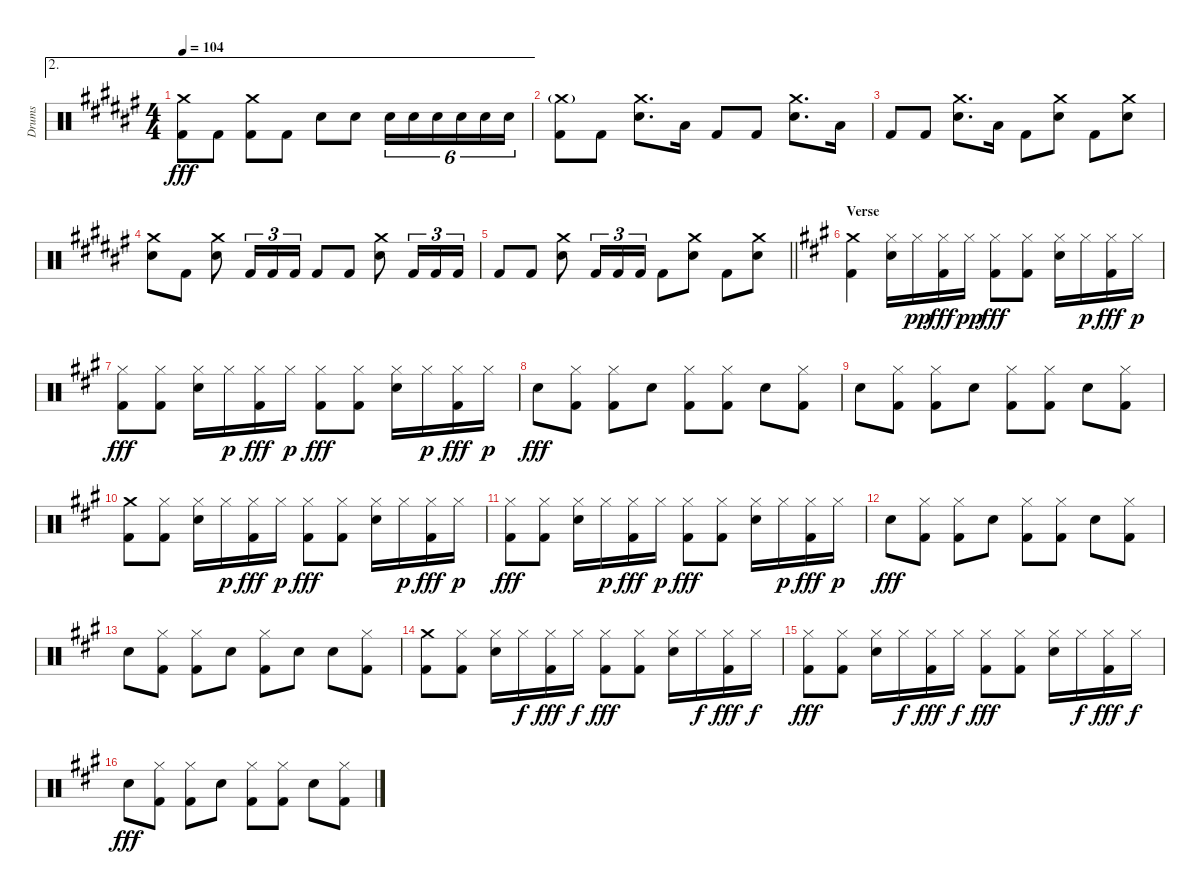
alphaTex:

\track ("Drums" "Drums") {instrument percussion}
\staff {score}
\articulation defaults
\ae 2
\ts (4 4)
\tempo 104
\clef neutral
\ks f#
("Crash medium (hit)" "Kick (hit) 2").8{dy fff} "Kick (hit) 2".8 ("Crash medium (hit)" "Kick (hit) 2").8 "Kick (hit) 2".8 "Snare (hit) 2".8 "Snare (hit) 2".8 "Snare (hit) 2".16{tu (6 4)} "Snare (hit) 2".16{tu (6 4)} "Snare (hit) 2".16{tu (6 4)} "Snare (hit) 2".16{tu (6 4)} "Snare (hit) 2".16{tu (6 4)} "Snare (hit) 2".16{tu (6 4)} |
("Crash medium (hit)"{g} "Kick (hit) 2").8 "Kick (hit) 2".8 ("Crash medium (hit)" "Snare (hit) 2").8{d} "Low Floor Tom (hit)".16 "Kick (hit) 2".8 "Kick (hit) 2".8 ("Crash medium (hit)" "Snare (hit) 2").8{d} "Low Floor Tom (hit)".16 |
"Kick (hit) 2".8 "Kick (hit) 2".8 ("Crash medium (hit)" "Snare (hit) 2").8{d} "Low Floor Tom (hit)".16 "Kick (hit) 2".8 ("Crash medium (hit)" "Snare (hit) 2").8 "Kick (hit) 2".8 ("Crash medium (hit)" "Snare (hit) 2").8 |
("Crash medium (hit)" "Snare (hit) 2").8 "Kick (hit) 2".8 ("Crash medium (hit)" "Snare (hit) 2").8 "Kick (hit) 2".16{tu (3 2)} "Kick (hit) 2".16{tu (3 2)} "Kick (hit) 2".16{tu (3 2)} "Kick (hit) 2".8 "Kick (hit) 2".8 ("Crash medium (hit)" "Snare (hit) 2").8 "Kick (hit) 2".16{tu (3 2)} "Kick (hit) 2".16{tu (3 2)} "Kick (hit) 2".16{tu (3 2)} |
\barLineRight lightlight "Kick (hit) 2".8 "Kick (hit) 2".8
("Crash medium (hit)" "Snare (hit) 2").8 "Kick (hit) 2".16{tu (3 2)} "Kick (hit) 2".16{tu (3 2)} "Kick (hit) 2".16{tu (3 2)} "Kick (hit) 2".8 ("Crash medium (hit)" "Snare (hit) 2").8 "Kick (hit) 2".8 ("Crash medium (hit)" "Snare (hit) 2").8 |
\section ("" "Verse")
\ks f#minor
("Crash medium (hit)" "Kick (hit) 2").4 ("Hi-Hat (closed)" "Snare (hit) 2").16 "Hi-Hat (closed)".16{dy pp} ("Hi-Hat (closed)" "Kick (hit) 2").16{dy fff} "Hi-Hat (closed)".16{dy pp} ("Hi-Hat (closed)" "Kick (hit) 2").8{dy fff} ("Hi-Hat (closed)" "Kick (hit) 2").8 ("Hi-Hat (closed)" "Snare (hit) 2").16 "Hi-Hat (closed)".16{dy p} ("Hi-Hat (closed)" "Kick (hit) 2").16{dy fff} "Hi-Hat (closed)".16{dy p} |
("Hi-Hat (closed)" "Kick (hit) 2").8{dy fff} ("Hi-Hat (closed)" "Kick (hit) 2").8 ("Hi-Hat (closed)" "Snare (hit) 2").16 "Hi-Hat (closed)".16{dy p} ("Hi-Hat (closed)" "Kick (hit) 2").16{dy fff} "Hi-Hat (closed)".16{dy p} ("Hi-Hat (closed)" "Kick (hit) 2").8{dy fff} ("Hi-Hat (closed)" "Kick (hit) 2").8 ("Hi-Hat (closed)" "Snare (hit) 2").16 "Hi-Hat (closed)".16{dy p} ("Hi-Hat (closed)" "Kick (hit) 2").16{dy fff} "Hi-Hat (closed)".16{dy p} |
"Snare (hit) 2".8{dy fff} ("Hi-Hat (closed)" "Kick (hit) 2").8 ("Hi-Hat (closed)" "Kick (hit) 2").8 "Snare (hit) 2".8 ("Hi-Hat (closed)" "Kick (hit) 2").8 ("Hi-Hat (closed)" "Kick (hit) 2").8 "Snare (hit) 2".8 ("Hi-Hat (closed)" "Kick (hit) 2").8 |
"Snare (hit) 2".8 ("Hi-Hat (closed)" "Kick (hit) 2").8 ("Hi-Hat (closed)" "Kick (hit) 2").8 "Snare (hit) 2".8 ("Hi-Hat (closed)" "Kick (hit) 2").8 ("Hi-Hat (closed)" "Kick (hit) 2").8 "Snare (hit) 2".8 ("Hi-Hat (closed)" "Kick (hit) 2").8 |
("Crash medium (hit)" "Kick (hit) 2").8 ("Hi-Hat (closed)" "Kick (hit) 2").8 ("Hi-Hat (closed)" "Snare (hit) 2").16 "Hi-Hat (closed)".16{dy p} ("Hi-Hat (closed)" "Kick (hit) 2").16{dy fff} "Hi-Hat (closed)".16{dy p} ("Hi-Hat (closed)" "Kick (hit) 2").8{dy fff} ("Hi-Hat (closed)" "Kick (hit) 2").8 ("Hi-Hat (closed)" "Snare (hit) 2").16 "Hi-Hat (closed)".16{dy p} ("Hi-Hat (closed)" "Kick (hit) 2").16{dy fff} "Hi-Hat (closed)".16{dy p} |
("Hi-Hat (closed)" "Kick (hit) 2").8{dy fff} ("Hi-Hat (closed)" "Kick (hit) 2").8 ("Hi-Hat (closed)" "Snare (hit) 2").16 "Hi-Hat (closed)".16{dy p} ("Hi-Hat (closed)" "Kick (hit) 2").16{dy fff} "Hi-Hat (closed)".16{dy p} ("Hi-Hat (closed)" "Kick (hit) 2").8{dy fff} ("Hi-Hat (closed)" "Kick (hit) 2").8 ("Hi-Hat (closed)" "Snare (hit) 2").16 "Hi-Hat (closed)".16{dy p} ("Hi-Hat (closed)" "Kick (hit) 2").16{dy fff} "Hi-Hat (closed)".16{dy p} |
"Snare (hit) 2".8{dy fff} ("Hi-Hat (closed)" "Kick (hit) 2").8 ("Hi-Hat (closed)" "Kick (hit) 2").8 "Snare (hit) 2".8 ("Hi-Hat (closed)" "Kick (hit) 2").8 ("Hi-Hat (closed)" "Kick (hit) 2").8 "Snare (hit) 2".8 ("Hi-Hat (closed)" "Kick (hit) 2").8 |
"Snare (hit) 2".8 ("Hi-Hat (closed)" "Kick (hit) 2").8 ("Hi-Hat (closed)" "Kick (hit) 2").8 "Snare (hit) 2".8 ("Hi-Hat (closed)" "Kick (hit) 2").8 "Snare (hit) 2".8 "Snare (hit) 2".8 ("Hi-Hat (closed)" "Kick (hit) 2").8 |
("Crash medium (hit)" "Kick (hit) 2").8 ("Hi-Hat (closed)" "Kick (hit) 2").8 ("Hi-Hat (closed)" "Snare (hit) 2").16 "Hi-Hat (closed)".16{dy f} ("Hi-Hat (closed)" "Kick (hit) 2").16{dy fff} "Hi-Hat (closed)".16{dy f} ("Hi-Hat (closed)" "Kick (hit) 2").8{dy fff} ("Hi-Hat (closed)" "Kick (hit) 2").8 ("Hi-Hat (closed)" "Snare (hit) 2").16 "Hi-Hat (closed)".16{dy f} ("Hi-Hat (closed)" "Kick (hit) 2").16{dy fff} "Hi-Hat (closed)".16{dy f} |
("Hi-Hat (closed)" "Kick (hit) 2").8{dy fff} ("Hi-Hat (closed)" "Kick (hit) 2").8 ("Hi-Hat (closed)" "Snare (hit) 2").16 "Hi-Hat (closed)".16{dy f} ("Hi-Hat (closed)" "Kick (hit) 2").16{dy fff} "Hi-Hat (closed)".16{dy f} ("Hi-Hat (closed)" "Kick (hit) 2").8{dy fff} ("Hi-Hat (closed)" "Kick (hit) 2").8 ("Hi-Hat (closed)" "Snare (hit) 2").16 "Hi-Hat (closed)".16{dy f} ("Hi-Hat (closed)" "Kick (hit) 2").16{dy fff} "Hi-Hat (closed)".16{dy f} |
"Snare (hit) 2".8{dy fff} ("Hi-Hat (closed)" "Kick (hit) 2").8 ("Hi-Hat (closed)" "Kick (hit) 2").8 "Snare (hit) 2".8 ("Hi-Hat (closed)" "Kick (hit) 2").8 ("Hi-Hat (closed)" "Kick (hit) 2").8 "Snare (hit) 2".8 ("Hi-Hat (closed)" "Kick (hit) 2").8
